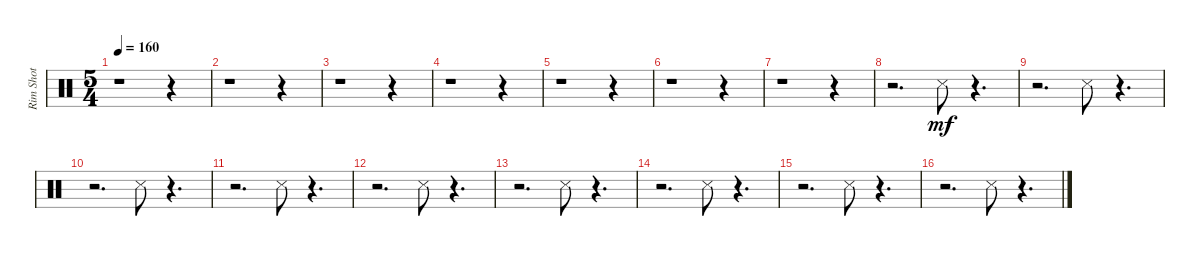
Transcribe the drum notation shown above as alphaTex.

\track ("Rim Shot" "Rim Shot") {instrument percussion}
\staff {score}
\articulation defaults
\ts (5 4)
\tempo 160
\clef neutral
\ks c
r.1{dy mf} r.4 |
r.1 r.4 |
r.1 r.4 |
r.1 r.4 |
r.1 r.4 |
r.1 r.4 |
r.1 r.4 |
r.2{d} "Snare (side stick) 3".8 r.4{d} |
r.2{d} "Snare (side stick) 3".8 r.4{d} |
r.2{d} "Snare (side stick) 3".8 r.4{d} |
r.2{d} "Snare (side stick) 3".8 r.4{d} |
r.2{d} "Snare (side stick) 3".8 r.4{d} |
r.2{d} "Snare (side stick) 3".8 r.4{d} |
r.2{d} "Snare (side stick) 3".8 r.4{d} |
r.2{d} "Snare (side stick) 3".8 r.4{d} |
r.2{d} "Snare (side stick) 3".8 r.4{d}
